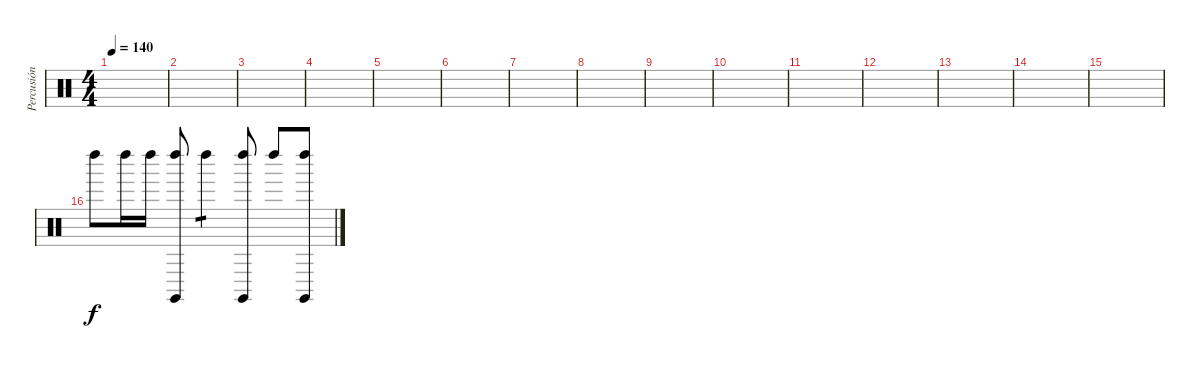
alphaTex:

\track ("Percusión" "Percusión") {instrument percussion}
\staff {score}
\articulation defaults
\ts (4 4)
\tempo 140
\clef neutral
\ks c
|
|
|
|
|
|
|
|
|
|
|
|
|
|
|
"Left Maraca (hit)".8 "Left Maraca (hit)".16 "Left Maraca (hit)".16 ("Left Maraca (hit)" "Claves (hit)").8 "Left Maraca (hit)".4{tp 1} ("Left Maraca (hit)" "Claves (hit)").8 "Left Maraca (hit)".8 ("Left Maraca (hit)" "Claves (hit)").8
